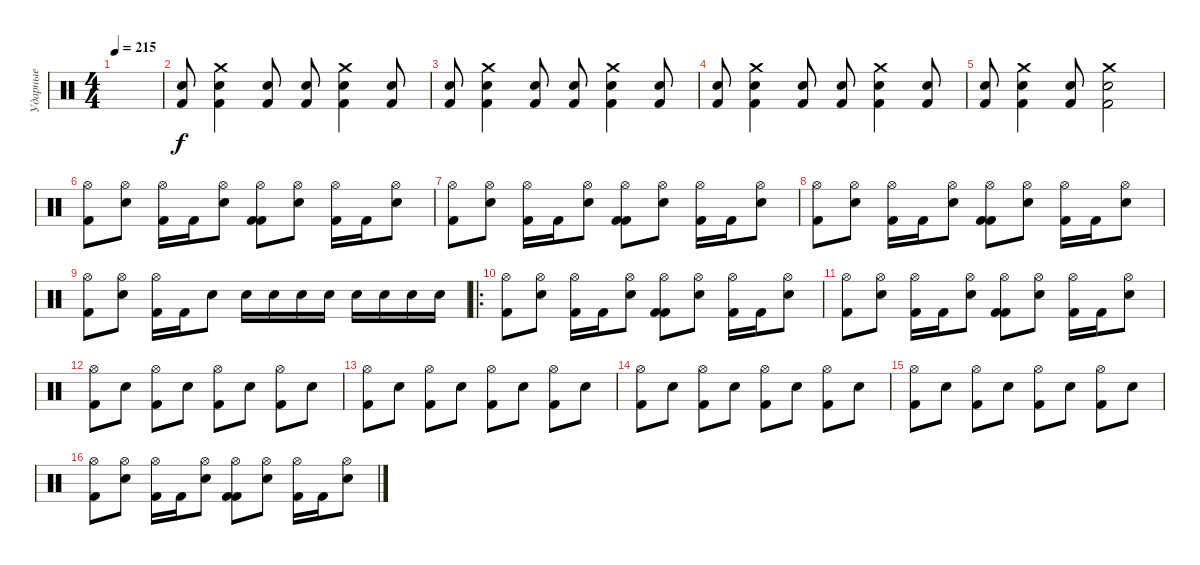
\track ("Ударные" "Ударные") {instrument percussion}
\staff {score}
\articulation defaults
\ts (4 4)
\tempo 215
\clef neutral
\ks c
|
("Snare (hit) 2" "Kick (hit) 2").8 ("Crash medium (hit)" "Snare (hit) 2" "Kick (hit) 2").4 ("Snare (hit) 2" "Kick (hit) 2").8 ("Snare (hit) 2" "Kick (hit) 2").8 ("Crash medium (hit)" "Snare (hit) 2" "Kick (hit) 2").4 ("Snare (hit) 2" "Kick (hit) 2").8 |
("Snare (hit) 2" "Kick (hit) 2").8 ("Crash medium (hit)" "Snare (hit) 2" "Kick (hit) 2").4 ("Snare (hit) 2" "Kick (hit) 2").8 ("Snare (hit) 2" "Kick (hit) 2").8 ("Crash medium (hit)" "Snare (hit) 2" "Kick (hit) 2").4 ("Snare (hit) 2" "Kick (hit) 2").8 |
("Snare (hit) 2" "Kick (hit) 2").8 ("Crash medium (hit)" "Snare (hit) 2" "Kick (hit) 2").4 ("Snare (hit) 2" "Kick (hit) 2").8 ("Snare (hit) 2" "Kick (hit) 2").8 ("Crash medium (hit)" "Snare (hit) 2" "Kick (hit) 2").4 ("Snare (hit) 2" "Kick (hit) 2").8 |
("Snare (hit) 2" "Kick (hit) 2").8 ("Crash medium (hit)" "Snare (hit) 2" "Kick (hit) 2").4 ("Snare (hit) 2" "Kick (hit) 2").8 ("Crash medium (hit)" "Snare (hit) 2" "Kick (hit) 2").2 |
("Kick (hit) 2" "Hi-Hat (open)").8 ("Hi-Hat (open)" "Electric Snare (hit)").8 ("Kick (hit) 2" "Hi-Hat (open)").16 "Kick (hit) 2".16 ("Hi-Hat (open)" "Electric Snare (hit)").8 ("Kick (hit) 2" "Kick (hit) 2" "Hi-Hat (open)").8 ("Hi-Hat (open)" "Electric Snare (hit)").8 ("Kick (hit) 2" "Hi-Hat (open)").16 "Kick (hit) 2".16 ("Hi-Hat (open)" "Electric Snare (hit)").8 |
("Kick (hit) 2" "Hi-Hat (open)").8 ("Hi-Hat (open)" "Electric Snare (hit)").8 ("Kick (hit) 2" "Hi-Hat (open)").16 "Kick (hit) 2".16 ("Hi-Hat (open)" "Electric Snare (hit)").8 ("Kick (hit) 2" "Kick (hit) 2" "Hi-Hat (open)").8 ("Hi-Hat (open)" "Electric Snare (hit)").8 ("Kick (hit) 2" "Hi-Hat (open)").16 "Kick (hit) 2".16 ("Hi-Hat (open)" "Electric Snare (hit)").8 |
("Kick (hit) 2" "Hi-Hat (open)").8 ("Hi-Hat (open)" "Electric Snare (hit)").8 ("Kick (hit) 2" "Hi-Hat (open)").16 "Kick (hit) 2".16 ("Hi-Hat (open)" "Electric Snare (hit)").8 ("Kick (hit) 2" "Kick (hit) 2" "Hi-Hat (open)").8 ("Hi-Hat (open)" "Electric Snare (hit)").8 ("Kick (hit) 2" "Hi-Hat (open)").16 "Kick (hit) 2".16 ("Hi-Hat (open)" "Electric Snare (hit)").8 |
("Kick (hit) 2" "Hi-Hat (open)").8 ("Hi-Hat (open)" "Electric Snare (hit)").8 ("Kick (hit) 2" "Hi-Hat (open)").16 "Kick (hit) 2".16 "Electric Snare (hit)".8 "Electric Snare (hit)".16 "Electric Snare (hit)".16 "Electric Snare (hit)".16 "Electric Snare (hit)".16 "Electric Snare (hit)".16 "Electric Snare (hit)".16 "Electric Snare (hit)".16 "Electric Snare (hit)".16 |
\ro
("Kick (hit) 2" "Hi-Hat (open)").8 ("Hi-Hat (open)" "Electric Snare (hit)").8 ("Kick (hit) 2" "Hi-Hat (open)").16 "Kick (hit) 2".16 ("Hi-Hat (open)" "Electric Snare (hit)").8 ("Kick (hit) 2" "Kick (hit) 2" "Hi-Hat (open)").8 ("Hi-Hat (open)" "Electric Snare (hit)").8 ("Kick (hit) 2" "Hi-Hat (open)").16 "Kick (hit) 2".16 ("Hi-Hat (open)" "Electric Snare (hit)").8 |
("Kick (hit) 2" "Hi-Hat (open)").8 ("Hi-Hat (open)" "Electric Snare (hit)").8 ("Kick (hit) 2" "Hi-Hat (open)").16 "Kick (hit) 2".16 ("Hi-Hat (open)" "Electric Snare (hit)").8 ("Kick (hit) 2" "Kick (hit) 2" "Hi-Hat (open)").8 ("Hi-Hat (open)" "Electric Snare (hit)").8 ("Kick (hit) 2" "Hi-Hat (open)").16 "Kick (hit) 2".16 ("Hi-Hat (open)" "Electric Snare (hit)").8 |
("Hi-Hat (open)" "Kick (hit) 2").8 "Electric Snare (hit)".8 ("Hi-Hat (open)" "Kick (hit) 2").8 "Electric Snare (hit)".8 ("Hi-Hat (open)" "Kick (hit) 2").8 "Electric Snare (hit)".8 ("Hi-Hat (open)" "Kick (hit) 2").8 "Electric Snare (hit)".8 |
("Hi-Hat (open)" "Kick (hit) 2").8 "Electric Snare (hit)".8 ("Hi-Hat (open)" "Kick (hit) 2").8 "Electric Snare (hit)".8 ("Hi-Hat (open)" "Kick (hit) 2").8 "Electric Snare (hit)".8 ("Hi-Hat (open)" "Kick (hit) 2").8 "Electric Snare (hit)".8 |
("Hi-Hat (open)" "Kick (hit) 2").8 "Electric Snare (hit)".8 ("Hi-Hat (open)" "Kick (hit) 2").8 "Electric Snare (hit)".8 ("Hi-Hat (open)" "Kick (hit) 2").8 "Electric Snare (hit)".8 ("Hi-Hat (open)" "Kick (hit) 2").8 "Electric Snare (hit)".8 |
("Hi-Hat (open)" "Kick (hit) 2").8 "Electric Snare (hit)".8 ("Hi-Hat (open)" "Kick (hit) 2").8 "Electric Snare (hit)".8 ("Hi-Hat (open)" "Kick (hit) 2").8 "Electric Snare (hit)".8 ("Hi-Hat (open)" "Kick (hit) 2").8 "Electric Snare (hit)".8 |
("Kick (hit) 2" "Hi-Hat (open)").8 ("Hi-Hat (open)" "Electric Snare (hit)").8 ("Kick (hit) 2" "Hi-Hat (open)").16 "Kick (hit) 2".16 ("Hi-Hat (open)" "Electric Snare (hit)").8 ("Kick (hit) 2" "Kick (hit) 2" "Hi-Hat (open)").8 ("Hi-Hat (open)" "Electric Snare (hit)").8 ("Kick (hit) 2" "Hi-Hat (open)").16 "Kick (hit) 2".16 ("Hi-Hat (open)" "Electric Snare (hit)").8
